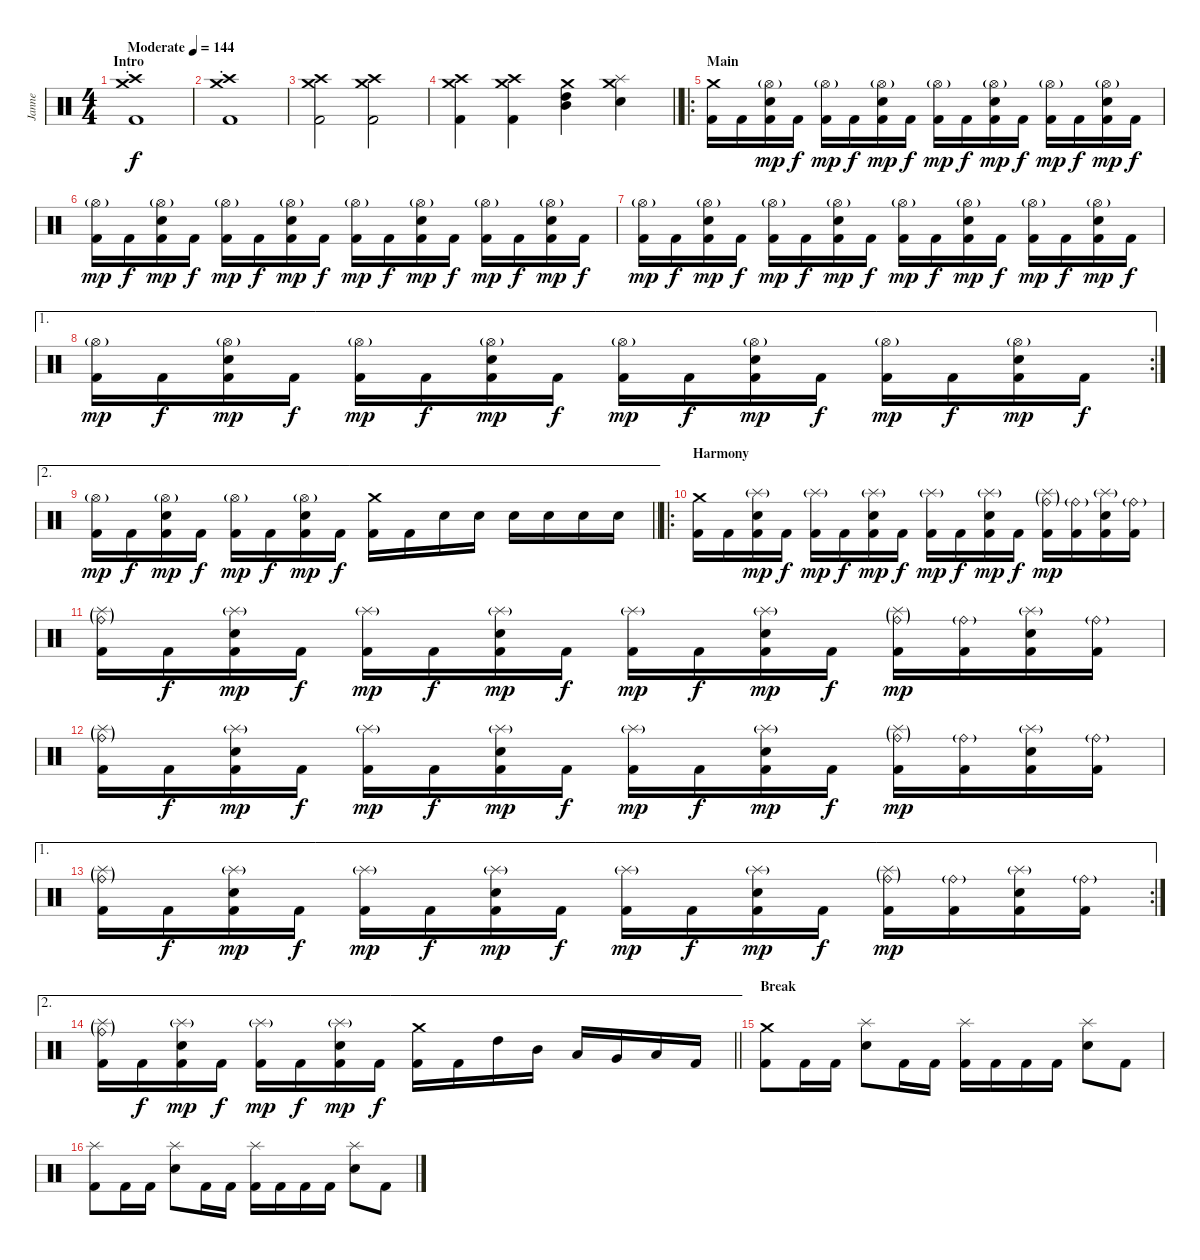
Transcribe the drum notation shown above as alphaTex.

\track ("Janne" "Janne") {instrument percussion}
\staff {score}
\articulation defaults
\ts (4 4)
\section ("" "Intro")
\tempo (144 "Moderate")
\clef neutral
\ks c
("Kick (hit) 2" "Crash high (hit)" "Crash medium (hit)"{st}).1{dy f} |
("Kick (hit) 2" "Crash high (hit)" "Crash medium (hit)"{st}).1 |
("Kick (hit) 2" "Crash high (hit)" "Crash medium (hit)").2 ("Kick (hit) 2" "Crash high (hit)" "Crash medium (hit)").2 |
\barLineRight lightlight
("Kick (hit) 2" "Crash high (hit)" "Crash medium (hit)").4 ("Kick (hit) 2" "Crash high (hit)" "Crash medium (hit)").4 ("High Tom (hit)" "Mid Tom (hit)" "Crash medium (hit)").4 ("Snare (hit) 2" "Splash (hit)" "Crash medium (hit)").4 |
\ro
\section ("" "Main")
("Kick (hit) 2" "Crash medium (hit)").16 "Kick (hit) 2".16 ("Kick (hit) 2" "Snare (hit) 2" "Hi-Hat (open)"{g}).16{dy mp} "Kick (hit) 2".16{dy f} ("Kick (hit) 2" "Hi-Hat (open)"{g}).16{dy mp} "Kick (hit) 2".16{dy f} ("Kick (hit) 2" "Snare (hit) 2" "Hi-Hat (open)"{g}).16{dy mp} "Kick (hit) 2".16{dy f} ("Kick (hit) 2" "Hi-Hat (open)"{g}).16{dy mp} "Kick (hit) 2".16{dy f} ("Kick (hit) 2" "Snare (hit) 2" "Hi-Hat (open)"{g}).16{dy mp} "Kick (hit) 2".16{dy f} ("Kick (hit) 2" "Hi-Hat (open)"{g}).16{dy mp} "Kick (hit) 2".16{dy f} ("Kick (hit) 2" "Snare (hit) 2" "Hi-Hat (open)"{g}).16{dy mp} "Kick (hit) 2".16{dy f} |
("Kick (hit) 2" "Hi-Hat (open)"{g}).16{dy mp} "Kick (hit) 2".16{dy f} ("Kick (hit) 2" "Snare (hit) 2" "Hi-Hat (open)"{g}).16{dy mp} "Kick (hit) 2".16{dy f} ("Kick (hit) 2" "Hi-Hat (open)"{g}).16{dy mp} "Kick (hit) 2".16{dy f} ("Kick (hit) 2" "Snare (hit) 2" "Hi-Hat (open)"{g}).16{dy mp} "Kick (hit) 2".16{dy f} ("Kick (hit) 2" "Hi-Hat (open)"{g}).16{dy mp} "Kick (hit) 2".16{dy f} ("Kick (hit) 2" "Snare (hit) 2" "Hi-Hat (open)"{g}).16{dy mp} "Kick (hit) 2".16{dy f} ("Kick (hit) 2" "Hi-Hat (open)"{g}).16{dy mp} "Kick (hit) 2".16{dy f} ("Kick (hit) 2" "Snare (hit) 2" "Hi-Hat (open)"{g}).16{dy mp} "Kick (hit) 2".16{dy f} |
("Kick (hit) 2" "Hi-Hat (open)"{g}).16{dy mp} "Kick (hit) 2".16{dy f} ("Kick (hit) 2" "Snare (hit) 2" "Hi-Hat (open)"{g}).16{dy mp} "Kick (hit) 2".16{dy f} ("Kick (hit) 2" "Hi-Hat (open)"{g}).16{dy mp} "Kick (hit) 2".16{dy f} ("Kick (hit) 2" "Snare (hit) 2" "Hi-Hat (open)"{g}).16{dy mp} "Kick (hit) 2".16{dy f} ("Kick (hit) 2" "Hi-Hat (open)"{g}).16{dy mp} "Kick (hit) 2".16{dy f} ("Kick (hit) 2" "Snare (hit) 2" "Hi-Hat (open)"{g}).16{dy mp} "Kick (hit) 2".16{dy f} ("Kick (hit) 2" "Hi-Hat (open)"{g}).16{dy mp} "Kick (hit) 2".16{dy f} ("Kick (hit) 2" "Snare (hit) 2" "Hi-Hat (open)"{g}).16{dy mp} "Kick (hit) 2".16{dy f} |
\ae 1
\rc 2
("Kick (hit) 2" "Hi-Hat (open)"{g}).16{dy mp} "Kick (hit) 2".16{dy f} ("Kick (hit) 2" "Snare (hit) 2" "Hi-Hat (open)"{g}).16{dy mp} "Kick (hit) 2".16{dy f} ("Kick (hit) 2" "Hi-Hat (open)"{g}).16{dy mp} "Kick (hit) 2".16{dy f} ("Kick (hit) 2" "Snare (hit) 2" "Hi-Hat (open)"{g}).16{dy mp} "Kick (hit) 2".16{dy f} ("Kick (hit) 2" "Hi-Hat (open)"{g}).16{dy mp} "Kick (hit) 2".16{dy f} ("Kick (hit) 2" "Snare (hit) 2" "Hi-Hat (open)"{g}).16{dy mp} "Kick (hit) 2".16{dy f} ("Kick (hit) 2" "Hi-Hat (open)"{g}).16{dy mp} "Kick (hit) 2".16{dy f} ("Kick (hit) 2" "Snare (hit) 2" "Hi-Hat (open)"{g}).16{dy mp} "Kick (hit) 2".16{dy f} |
\ae 2
\barLineRight lightlight
("Kick (hit) 2" "Hi-Hat (open)"{g}).16{dy mp} "Kick (hit) 2".16{dy f} ("Kick (hit) 2" "Snare (hit) 2" "Hi-Hat (open)"{g}).16{dy mp} "Kick (hit) 2".16{dy f} ("Kick (hit) 2" "Hi-Hat (open)"{g}).16{dy mp} "Kick (hit) 2".16{dy f} ("Kick (hit) 2" "Snare (hit) 2" "Hi-Hat (open)"{g}).16{dy mp} "Kick (hit) 2".16{dy f} ("Kick (hit) 2" "Crash medium (hit)").16 "Kick (hit) 2".16 "Snare (hit) 2".16 "Snare (hit) 2".16 "Snare (hit) 2".16 "Snare (hit) 2".16 "Snare (hit) 2".16 "Snare (hit) 2".16 |
\ro
\section ("" "Harmony")
("Kick (hit) 2" "Crash medium (hit)").16 "Kick (hit) 2".16 ("Kick (hit) 2" "Snare (hit) 2" "Splash (hit)"{g}).16{dy mp} "Kick (hit) 2".16{dy f} ("Kick (hit) 2" "Splash (hit)"{g}).16{dy mp} "Kick (hit) 2".16{dy f} ("Kick (hit) 2" "Snare (hit) 2" "Splash (hit)"{g}).16{dy mp} "Kick (hit) 2".16{dy f} ("Kick (hit) 2" "Splash (hit)"{g}).16{dy mp} "Kick (hit) 2".16{dy f} ("Kick (hit) 2" "Snare (hit) 2" "Splash (hit)"{g}).16{dy mp} "Kick (hit) 2".16{dy f} ("Kick (hit) 2" "Splash (hit)"{g} "Ride (bell)"{g}).16{dy mp} ("Kick (hit) 2" "Ride (bell)"{g}).16 ("Kick (hit) 2" "Snare (hit) 2" "Splash (hit)"{g}).16 ("Kick (hit) 2" "Ride (bell)"{g}).16 |
("Kick (hit) 2" "Splash (hit)"{g} "Ride (bell)"{g}).16 "Kick (hit) 2".16{dy f} ("Kick (hit) 2" "Snare (hit) 2" "Splash (hit)"{g}).16{dy mp} "Kick (hit) 2".16{dy f} ("Kick (hit) 2" "Splash (hit)"{g}).16{dy mp} "Kick (hit) 2".16{dy f} ("Kick (hit) 2" "Snare (hit) 2" "Splash (hit)"{g}).16{dy mp} "Kick (hit) 2".16{dy f} ("Kick (hit) 2" "Splash (hit)"{g}).16{dy mp} "Kick (hit) 2".16{dy f} ("Kick (hit) 2" "Snare (hit) 2" "Splash (hit)"{g}).16{dy mp} "Kick (hit) 2".16{dy f} ("Kick (hit) 2" "Splash (hit)"{g} "Ride (bell)"{g}).16{dy mp} ("Kick (hit) 2" "Ride (bell)"{g}).16 ("Kick (hit) 2" "Snare (hit) 2" "Splash (hit)"{g}).16 ("Kick (hit) 2" "Ride (bell)"{g}).16 |
("Kick (hit) 2" "Splash (hit)"{g} "Ride (bell)"{g}).16 "Kick (hit) 2".16{dy f} ("Kick (hit) 2" "Snare (hit) 2" "Splash (hit)"{g}).16{dy mp} "Kick (hit) 2".16{dy f} ("Kick (hit) 2" "Splash (hit)"{g}).16{dy mp} "Kick (hit) 2".16{dy f} ("Kick (hit) 2" "Snare (hit) 2" "Splash (hit)"{g}).16{dy mp} "Kick (hit) 2".16{dy f} ("Kick (hit) 2" "Splash (hit)"{g}).16{dy mp} "Kick (hit) 2".16{dy f} ("Kick (hit) 2" "Snare (hit) 2" "Splash (hit)"{g}).16{dy mp} "Kick (hit) 2".16{dy f} ("Kick (hit) 2" "Splash (hit)"{g} "Ride (bell)"{g}).16{dy mp} ("Kick (hit) 2" "Ride (bell)"{g}).16 ("Kick (hit) 2" "Snare (hit) 2" "Splash (hit)"{g}).16 ("Kick (hit) 2" "Ride (bell)"{g}).16 |
\ae 1
\rc 2
("Kick (hit) 2" "Splash (hit)"{g} "Ride (bell)"{g}).16 "Kick (hit) 2".16{dy f} ("Kick (hit) 2" "Snare (hit) 2" "Splash (hit)"{g}).16{dy mp} "Kick (hit) 2".16{dy f} ("Kick (hit) 2" "Splash (hit)"{g}).16{dy mp} "Kick (hit) 2".16{dy f} ("Kick (hit) 2" "Snare (hit) 2" "Splash (hit)"{g}).16{dy mp} "Kick (hit) 2".16{dy f} ("Kick (hit) 2" "Splash (hit)"{g}).16{dy mp} "Kick (hit) 2".16{dy f} ("Kick (hit) 2" "Snare (hit) 2" "Splash (hit)"{g}).16{dy mp} "Kick (hit) 2".16{dy f} ("Kick (hit) 2" "Splash (hit)"{g} "Ride (bell)"{g}).16{dy mp} ("Kick (hit) 2" "Ride (bell)"{g}).16 ("Kick (hit) 2" "Snare (hit) 2" "Splash (hit)"{g}).16 ("Kick (hit) 2" "Ride (bell)"{g}).16 |
\ae 2
\barLineRight lightlight
("Kick (hit) 2" "Splash (hit)"{g} "Ride (bell)"{g}).16 "Kick (hit) 2".16{dy f} ("Kick (hit) 2" "Snare (hit) 2" "Splash (hit)"{g}).16{dy mp} "Kick (hit) 2".16{dy f} ("Kick (hit) 2" "Splash (hit)"{g}).16{dy mp} "Kick (hit) 2".16{dy f} ("Kick (hit) 2" "Snare (hit) 2" "Splash (hit)"{g}).16{dy mp} "Kick (hit) 2".16{dy f} ("Kick (hit) 2" "Crash medium (hit)").16 "Kick (hit) 2".16 "High Tom (hit)".16 "Mid Tom (hit)".16 "Low Tom (hit)".16 "Very Low Tom (hit)".16 "Low Floor Tom (hit)".16 "Kick (hit) 2".16 |
\section ("" "Break")
("Kick (hit) 2" "Crash medium (hit)").8 "Kick (hit) 2".16 "Kick (hit) 2".16 ("Snare (hit) 2" "Splash (hit)").8 "Kick (hit) 2".16 "Kick (hit) 2".16 ("Kick (hit) 2" "Splash (hit)").16 "Kick (hit) 2".16 "Kick (hit) 2".16 "Kick (hit) 2".16 ("Snare (hit) 2" "Splash (hit)").8 "Kick (hit) 2".8 |
("Kick (hit) 2" "Splash (hit)").8 "Kick (hit) 2".16 "Kick (hit) 2".16 ("Snare (hit) 2" "Splash (hit)").8 "Kick (hit) 2".16 "Kick (hit) 2".16 ("Kick (hit) 2" "Splash (hit)").16 "Kick (hit) 2".16 "Kick (hit) 2".16 "Kick (hit) 2".16 ("Snare (hit) 2" "Splash (hit)").8 "Kick (hit) 2".8
